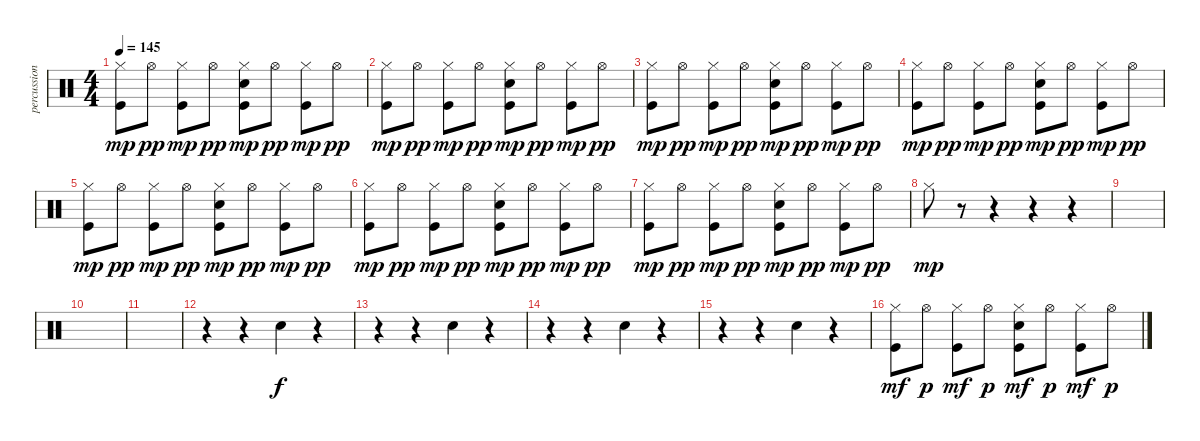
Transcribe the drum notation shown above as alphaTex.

\track ("percussion" "percussion") {instrument percussion}
\staff {score}
\articulation defaults
\ts (4 4)
\tempo 145
\clef neutral
\ks c
("Hi-Hat (closed)" "Kick (hit)").8{dy mp} "Hi-Hat (open)".8{dy pp} ("Hi-Hat (closed)" "Kick (hit)").8{dy mp} "Hi-Hat (open)".8{dy pp} ("Hi-Hat (closed)" "Electric Snare (hit)" "Kick (hit)").8{dy mp} "Hi-Hat (open)".8{dy pp} ("Hi-Hat (closed)" "Kick (hit)").8{dy mp} "Hi-Hat (open)".8{dy pp} |
("Hi-Hat (closed)" "Kick (hit)").8{dy mp} "Hi-Hat (open)".8{dy pp} ("Hi-Hat (closed)" "Kick (hit)").8{dy mp} "Hi-Hat (open)".8{dy pp} ("Hi-Hat (closed)" "Electric Snare (hit)" "Kick (hit)").8{dy mp} "Hi-Hat (open)".8{dy pp} ("Hi-Hat (closed)" "Kick (hit)").8{dy mp} "Hi-Hat (open)".8{dy pp} |
("Hi-Hat (closed)" "Kick (hit)").8{dy mp} "Hi-Hat (open)".8{dy pp} ("Hi-Hat (closed)" "Kick (hit)").8{dy mp} "Hi-Hat (open)".8{dy pp} ("Hi-Hat (closed)" "Electric Snare (hit)" "Kick (hit)").8{dy mp} "Hi-Hat (open)".8{dy pp} ("Hi-Hat (closed)" "Kick (hit)").8{dy mp} "Hi-Hat (open)".8{dy pp} |
("Hi-Hat (closed)" "Kick (hit)").8{dy mp} "Hi-Hat (open)".8{dy pp} ("Hi-Hat (closed)" "Kick (hit)").8{dy mp} "Hi-Hat (open)".8{dy pp} ("Hi-Hat (closed)" "Electric Snare (hit)" "Kick (hit)").8{dy mp} "Hi-Hat (open)".8{dy pp} ("Hi-Hat (closed)" "Kick (hit)").8{dy mp} "Hi-Hat (open)".8{dy pp} |
("Hi-Hat (closed)" "Kick (hit)").8{dy mp} "Hi-Hat (open)".8{dy pp} ("Hi-Hat (closed)" "Kick (hit)").8{dy mp} "Hi-Hat (open)".8{dy pp} ("Hi-Hat (closed)" "Electric Snare (hit)" "Kick (hit)").8{dy mp} "Hi-Hat (open)".8{dy pp} ("Hi-Hat (closed)" "Kick (hit)").8{dy mp} "Hi-Hat (open)".8{dy pp} |
("Hi-Hat (closed)" "Kick (hit)").8{dy mp} "Hi-Hat (open)".8{dy pp} ("Hi-Hat (closed)" "Kick (hit)").8{dy mp} "Hi-Hat (open)".8{dy pp} ("Hi-Hat (closed)" "Electric Snare (hit)" "Kick (hit)").8{dy mp} "Hi-Hat (open)".8{dy pp} ("Hi-Hat (closed)" "Kick (hit)").8{dy mp} "Hi-Hat (open)".8{dy pp} |
("Hi-Hat (closed)" "Kick (hit)").8{dy mp} "Hi-Hat (open)".8{dy pp} ("Hi-Hat (closed)" "Kick (hit)").8{dy mp} "Hi-Hat (open)".8{dy pp} ("Hi-Hat (closed)" "Electric Snare (hit)" "Kick (hit)").8{dy mp} "Hi-Hat (open)".8{dy pp} ("Hi-Hat (closed)" "Kick (hit)").8{dy mp} "Hi-Hat (open)".8{dy pp} |
"Hi-Hat (closed)".8{dy mp} r.8 r.4 r.4 r.4 |
|
|
|
r.4 r.4 "Electric Snare (hit)".4{dy f} r.4 |
r.4 r.4 "Electric Snare (hit)".4 r.4 |
r.4 r.4 "Electric Snare (hit)".4 r.4 |
r.4 r.4 "Electric Snare (hit)".4 r.4 |
("Hi-Hat (closed)" "Kick (hit)").8{dy mf} "Hi-Hat (open)".8{dy p} ("Hi-Hat (closed)" "Kick (hit)").8{dy mf} "Hi-Hat (open)".8{dy p} ("Hi-Hat (closed)" "Electric Snare (hit)" "Kick (hit)").8{dy mf} "Hi-Hat (open)".8{dy p} ("Hi-Hat (closed)" "Kick (hit)").8{dy mf} "Hi-Hat (open)".8{dy p}
